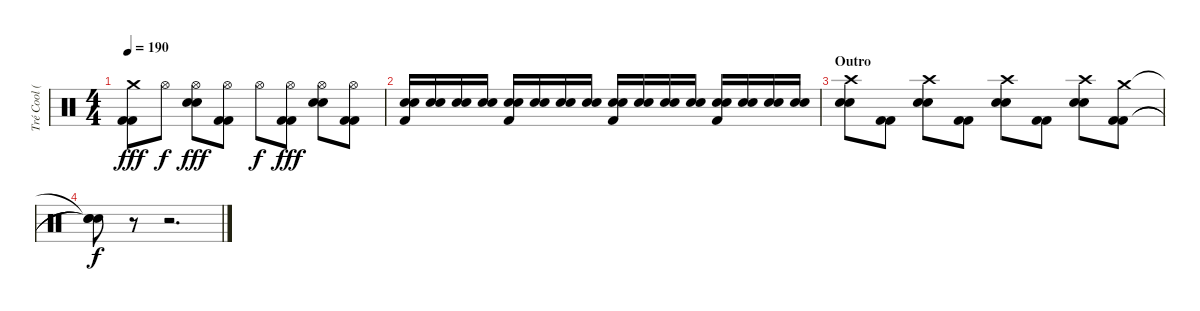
\track ("Tré Cool (Drums)" "Tré Cool (") {instrument percussion}
\staff {score}
\articulation defaults
\ts (4 4)
\tempo 190
\clef neutral
\ks c
("Kick (hit) 2" "Kick (hit) 2" "Crash medium (hit)").8{dy fff} "Hi-Hat (open)".8{dy f} ("Electric Snare (hit)" "Electric Snare (hit)" "Hi-Hat (open)").8{dy fff} ("Kick (hit) 2" "Kick (hit) 2" "Hi-Hat (open)").8 "Hi-Hat (open)".8{dy f} ("Kick (hit) 2" "Kick (hit) 2" "Hi-Hat (open)").8{dy fff} ("Electric Snare (hit)" "Electric Snare (hit)" "Hi-Hat (open)").8 ("Kick (hit) 2" "Kick (hit) 2" "Hi-Hat (open)").8 |
("Electric Snare (hit)" "Electric Snare (hit)" "Kick (hit) 2").16 ("Electric Snare (hit)" "Electric Snare (hit)").16 ("Electric Snare (hit)" "Electric Snare (hit)").16 ("Electric Snare (hit)" "Electric Snare (hit)").16 ("Electric Snare (hit)" "Electric Snare (hit)" "Kick (hit) 2").16 ("Electric Snare (hit)" "Electric Snare (hit)").16 ("Electric Snare (hit)" "Electric Snare (hit)").16 ("Electric Snare (hit)" "Electric Snare (hit)").16 ("Electric Snare (hit)" "Electric Snare (hit)" "Kick (hit) 2").16 ("Electric Snare (hit)" "Electric Snare (hit)").16 ("Electric Snare (hit)" "Electric Snare (hit)").16 ("Electric Snare (hit)" "Electric Snare (hit)").16 ("Electric Snare (hit)" "Electric Snare (hit)" "Kick (hit) 2").16 ("Electric Snare (hit)" "Electric Snare (hit)").16 ("Electric Snare (hit)" "Electric Snare (hit)").16 ("Electric Snare (hit)" "Electric Snare (hit)").16 |
\section ("" "Outro")
("Electric Snare (hit)" "Electric Snare (hit)" "Crash high (hit)").8 ("Kick (hit) 2" "Kick (hit) 2").8 ("Electric Snare (hit)" "Electric Snare (hit)" "Crash high (hit)").8 ("Kick (hit) 2" "Kick (hit) 2").8 ("Electric Snare (hit)" "Electric Snare (hit)" "Crash high (hit)").8 ("Kick (hit) 2" "Kick (hit) 2").8 ("Electric Snare (hit)" "Electric Snare (hit)" "Crash high (hit)").8 ("Kick (hit) 2" "Kick (hit) 2" "Crash medium (hit)").8 |
("Snare (hit)"{t} "Snare (hit)"{t} "Snare (hit)"{t}).8{dy f} r.8 r.2{d}
